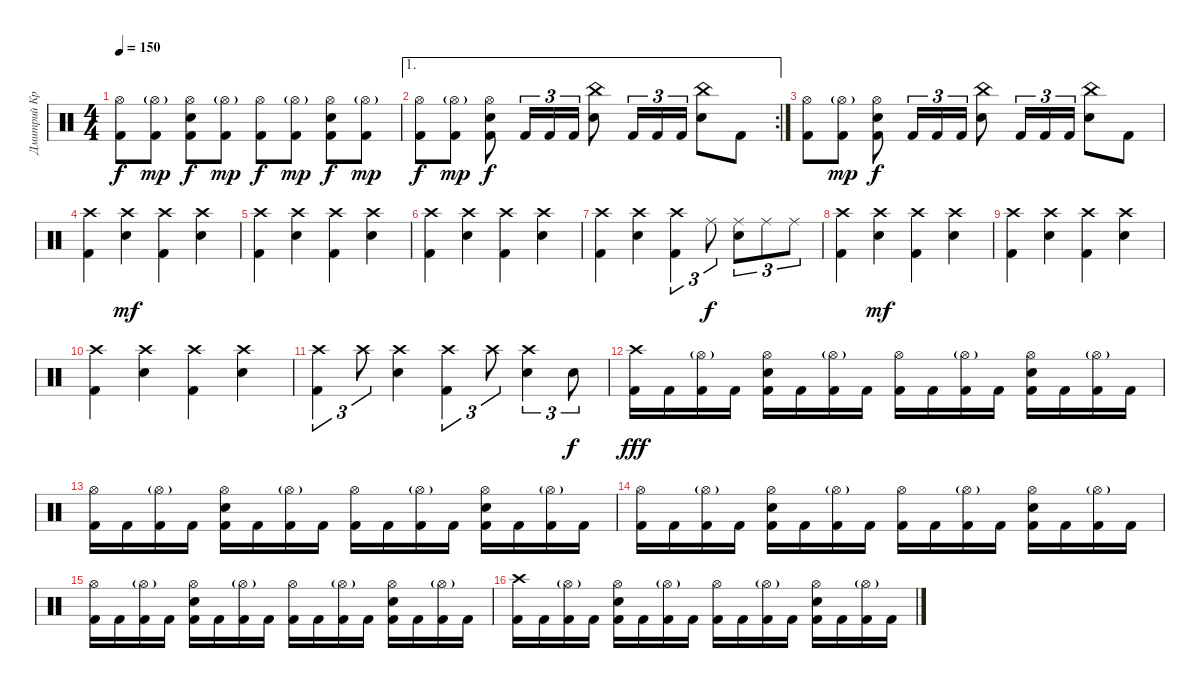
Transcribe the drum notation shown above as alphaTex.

\track ("Дмитрий Кривенков" "Дмитрий Кр") {instrument percussion}
\staff {score}
\articulation defaults
\ts (4 4)
\tempo 150
\clef neutral
\ks c
("Hi-Hat (open)" "Kick (hit) 2").8{dy f} ("Hi-Hat (open)"{g} "Kick (hit) 2").8{dy mp} ("Hi-Hat (open)" "Electric Snare (hit)" "Kick (hit) 2").8{dy f} ("Hi-Hat (open)"{g} "Kick (hit) 2").8{dy mp} ("Hi-Hat (open)" "Kick (hit) 2").8{dy f} ("Hi-Hat (open)"{g} "Kick (hit) 2").8{dy mp} ("Hi-Hat (open)" "Electric Snare (hit)" "Kick (hit) 2").8{dy f} ("Hi-Hat (open)"{g} "Kick (hit) 2").8{dy mp} |
\ae 1
\rc 2
("Hi-Hat (open)" "Kick (hit) 2").8{dy f} ("Hi-Hat (open)"{g} "Kick (hit) 2").8{dy mp} ("Hi-Hat (open)" "Electric Snare (hit)" "Kick (hit) 2").8{dy f} "Kick (hit) 2".16{tu (3 2)} "Kick (hit) 2".16{tu (3 2)} "Kick (hit) 2".16{tu (3 2)} ("China (hit)" "Electric Snare (hit)").8 "Kick (hit) 2".16{tu (3 2)} "Kick (hit) 2".16{tu (3 2)} "Kick (hit) 2".16{tu (3 2)} ("China (hit)" "Electric Snare (hit)").8 "Kick (hit) 2".8 |
("Hi-Hat (open)" "Kick (hit) 2").8 ("Hi-Hat (open)"{g} "Kick (hit) 2").8{dy mp} ("Hi-Hat (open)" "Electric Snare (hit)" "Kick (hit) 2").8{dy f} "Kick (hit) 2".16{tu (3 2)} "Kick (hit) 2".16{tu (3 2)} "Kick (hit) 2".16{tu (3 2)} ("China (hit)" "Electric Snare (hit)").8 "Kick (hit) 2".16{tu (3 2)} "Kick (hit) 2".16{tu (3 2)} "Kick (hit) 2".16{tu (3 2)} ("China (hit)" "Electric Snare (hit)").8 "Kick (hit) 2".8 |
("Crash high (hit)" "Kick (hit) 2").4 ("Crash high (hit)" "Electric Snare (hit)").4{dy mf} ("Crash high (hit)" "Kick (hit) 2").4 ("Crash high (hit)" "Electric Snare (hit)").4 |
("Crash high (hit)" "Kick (hit) 2").4 ("Crash high (hit)" "Electric Snare (hit)").4 ("Crash high (hit)" "Kick (hit) 2").4 ("Crash high (hit)" "Electric Snare (hit)").4 |
("Crash high (hit)" "Kick (hit) 2").4 ("Crash high (hit)" "Electric Snare (hit)").4 ("Crash high (hit)" "Kick (hit) 2").4 ("Crash high (hit)" "Electric Snare (hit)").4 |
("Crash high (hit)" "Kick (hit) 2").4 ("Crash high (hit)" "Electric Snare (hit)").4 ("Crash high (hit)" "Kick (hit) 2").4{tu (3 2)} "Ride (middle)".8{tu (3 2) dy f} ("Ride (middle)" "Electric Snare (hit)").8{tu (3 2)} "Ride (middle)".8{tu (3 2)} "Ride (middle)".8{tu (3 2)} |
("Crash high (hit)" "Kick (hit) 2").4 ("Crash high (hit)" "Electric Snare (hit)").4{dy mf} ("Crash high (hit)" "Kick (hit) 2").4 ("Crash high (hit)" "Electric Snare (hit)").4 |
("Crash high (hit)" "Kick (hit) 2").4 ("Crash high (hit)" "Electric Snare (hit)").4 ("Crash high (hit)" "Kick (hit) 2").4 ("Crash high (hit)" "Electric Snare (hit)").4 |
("Crash high (hit)" "Kick (hit) 2").4 ("Crash high (hit)" "Electric Snare (hit)").4 ("Crash high (hit)" "Kick (hit) 2").4 ("Crash high (hit)" "Electric Snare (hit)").4 |
("Crash high (hit)" "Kick (hit) 2").4{tu (3 2)} "Crash high (hit)".8{tu (3 2)} ("Crash high (hit)" "Electric Snare (hit)").4 ("Crash high (hit)" "Kick (hit) 2").4{tu (3 2)} "Crash high (hit)".8{tu (3 2)} ("Crash high (hit)" "Electric Snare (hit)").4{tu (3 2)} "Electric Snare (hit)".8{tu (3 2) dy f} |
("Crash high (hit)" "Kick (hit) 2").16{dy fff} "Kick (hit) 2".16 ("Hi-Hat (open)"{g} "Kick (hit) 2").16 "Kick (hit) 2".16 ("Hi-Hat (open)" "Electric Snare (hit)" "Kick (hit) 2").16 "Kick (hit) 2".16 ("Hi-Hat (open)"{g} "Kick (hit) 2").16 "Kick (hit) 2".16 ("Hi-Hat (open)" "Kick (hit) 2").16 "Kick (hit) 2".16 ("Hi-Hat (open)"{g} "Kick (hit) 2").16 "Kick (hit) 2".16 ("Hi-Hat (open)" "Electric Snare (hit)" "Kick (hit) 2").16 "Kick (hit) 2".16 ("Hi-Hat (open)"{g} "Kick (hit) 2").16 "Kick (hit) 2".16 |
("Hi-Hat (open)" "Kick (hit) 2").16 "Kick (hit) 2".16 ("Hi-Hat (open)"{g} "Kick (hit) 2").16 "Kick (hit) 2".16 ("Hi-Hat (open)" "Electric Snare (hit)" "Kick (hit) 2").16 "Kick (hit) 2".16 ("Hi-Hat (open)"{g} "Kick (hit) 2").16 "Kick (hit) 2".16 ("Hi-Hat (open)" "Kick (hit) 2").16 "Kick (hit) 2".16 ("Hi-Hat (open)"{g} "Kick (hit) 2").16 "Kick (hit) 2".16 ("Hi-Hat (open)" "Electric Snare (hit)" "Kick (hit) 2").16 "Kick (hit) 2".16 ("Hi-Hat (open)"{g} "Kick (hit) 2").16 "Kick (hit) 2".16 |
("Hi-Hat (open)" "Kick (hit) 2").16 "Kick (hit) 2".16 ("Hi-Hat (open)"{g} "Kick (hit) 2").16 "Kick (hit) 2".16 ("Hi-Hat (open)" "Electric Snare (hit)" "Kick (hit) 2").16 "Kick (hit) 2".16 ("Hi-Hat (open)"{g} "Kick (hit) 2").16 "Kick (hit) 2".16 ("Hi-Hat (open)" "Kick (hit) 2").16 "Kick (hit) 2".16 ("Hi-Hat (open)"{g} "Kick (hit) 2").16 "Kick (hit) 2".16 ("Hi-Hat (open)" "Electric Snare (hit)" "Kick (hit) 2").16 "Kick (hit) 2".16 ("Hi-Hat (open)"{g} "Kick (hit) 2").16 "Kick (hit) 2".16 |
("Hi-Hat (open)" "Kick (hit) 2").16 "Kick (hit) 2".16 ("Hi-Hat (open)"{g} "Kick (hit) 2").16 "Kick (hit) 2".16 ("Hi-Hat (open)" "Electric Snare (hit)" "Kick (hit) 2").16 "Kick (hit) 2".16 ("Hi-Hat (open)"{g} "Kick (hit) 2").16 "Kick (hit) 2".16 ("Hi-Hat (open)" "Kick (hit) 2").16 "Kick (hit) 2".16 ("Hi-Hat (open)"{g} "Kick (hit) 2").16 "Kick (hit) 2".16 ("Hi-Hat (open)" "Electric Snare (hit)" "Kick (hit) 2").16 "Kick (hit) 2".16 ("Hi-Hat (open)"{g} "Kick (hit) 2").16 "Kick (hit) 2".16 |
("Crash high (hit)" "Kick (hit) 2").16 "Kick (hit) 2".16 ("Hi-Hat (open)"{g} "Kick (hit) 2").16 "Kick (hit) 2".16 ("Hi-Hat (open)" "Electric Snare (hit)" "Kick (hit) 2").16 "Kick (hit) 2".16 ("Hi-Hat (open)"{g} "Kick (hit) 2").16 "Kick (hit) 2".16 ("Hi-Hat (open)" "Kick (hit) 2").16 "Kick (hit) 2".16 ("Hi-Hat (open)"{g} "Kick (hit) 2").16 "Kick (hit) 2".16 ("Hi-Hat (open)" "Electric Snare (hit)" "Kick (hit) 2").16 "Kick (hit) 2".16 ("Hi-Hat (open)"{g} "Kick (hit) 2").16 "Kick (hit) 2".16
